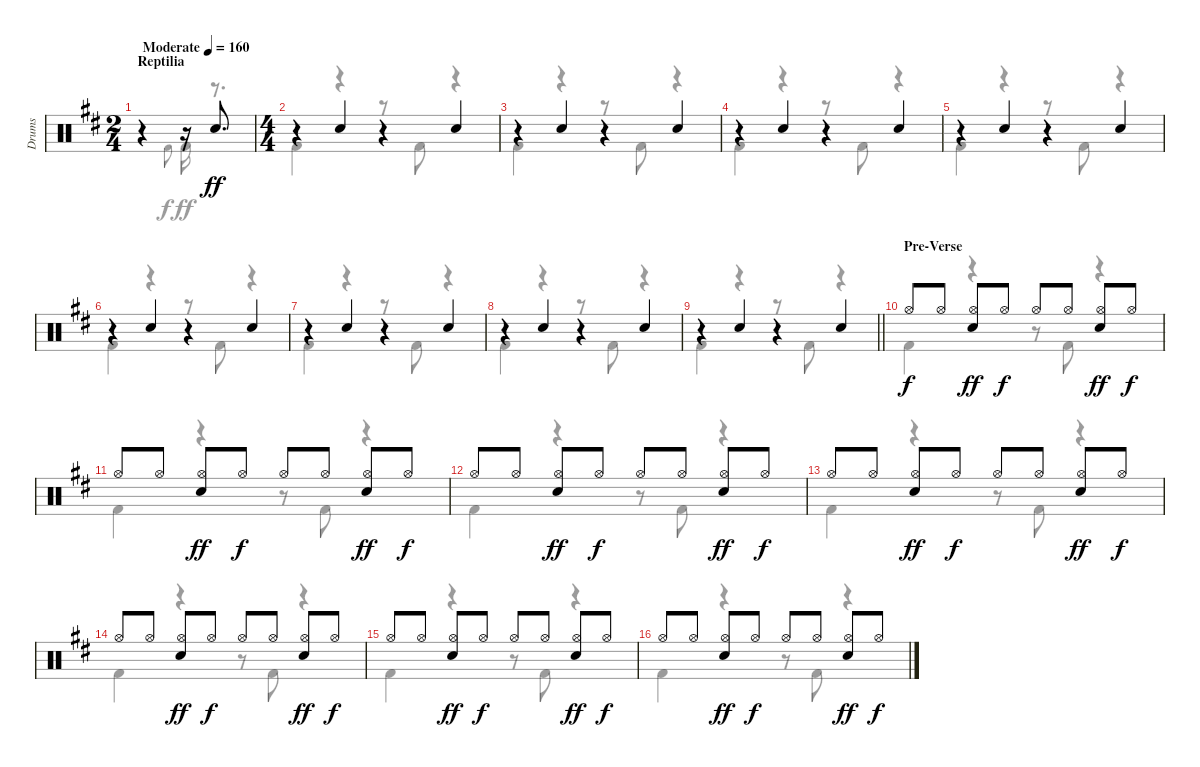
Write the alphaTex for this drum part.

\track ("Drums" "Drums") {instrument percussion}
\staff {score}
\articulation defaults
\voice
\ts (2 4)
\section ("" "Reptilia")
\tempo (160 "Moderate")
\clef neutral
\ks bminor
r.4{dy ff} r.16 "Electric Snare (hit)".8{d} |
\ts (4 4)
r.4 "Electric Snare (hit)".4 r.4 "Electric Snare (hit)".4 |
r.4 "Electric Snare (hit)".4 r.4 "Electric Snare (hit)".4 |
r.4 "Electric Snare (hit)".4 r.4 "Electric Snare (hit)".4 |
r.4 "Electric Snare (hit)".4 r.4 "Electric Snare (hit)".4 |
r.4 "Electric Snare (hit)".4 r.4 "Electric Snare (hit)".4 |
r.4 "Electric Snare (hit)".4 r.4 "Electric Snare (hit)".4 |
r.4 "Electric Snare (hit)".4 r.4 "Electric Snare (hit)".4 |
\barLineRight lightlight
r.4 "Electric Snare (hit)".4 r.4 "Electric Snare (hit)".4 |
\section ("" "Pre-Verse")
"Hi-Hat (open)".8{dy f} "Hi-Hat (open)".8 ("Hi-Hat (open)" "Electric Snare (hit)").8{dy ff} "Hi-Hat (open)".8{dy f} "Hi-Hat (open)".8 "Hi-Hat (open)".8 ("Hi-Hat (open)" "Electric Snare (hit)").8{dy ff} "Hi-Hat (open)".8{dy f} |
"Hi-Hat (open)".8 "Hi-Hat (open)".8 ("Hi-Hat (open)" "Electric Snare (hit)").8{dy ff} "Hi-Hat (open)".8{dy f} "Hi-Hat (open)".8 "Hi-Hat (open)".8 ("Hi-Hat (open)" "Electric Snare (hit)").8{dy ff} "Hi-Hat (open)".8{dy f} |
"Hi-Hat (open)".8 "Hi-Hat (open)".8 ("Hi-Hat (open)" "Electric Snare (hit)").8{dy ff} "Hi-Hat (open)".8{dy f} "Hi-Hat (open)".8 "Hi-Hat (open)".8 ("Hi-Hat (open)" "Electric Snare (hit)").8{dy ff} "Hi-Hat (open)".8{dy f} |
"Hi-Hat (open)".8 "Hi-Hat (open)".8 ("Hi-Hat (open)" "Electric Snare (hit)").8{dy ff} "Hi-Hat (open)".8{dy f} "Hi-Hat (open)".8 "Hi-Hat (open)".8 ("Hi-Hat (open)" "Electric Snare (hit)").8{dy ff} "Hi-Hat (open)".8{dy f} |
"Hi-Hat (open)".8 "Hi-Hat (open)".8 ("Hi-Hat (open)" "Electric Snare (hit)").8{dy ff} "Hi-Hat (open)".8{dy f} "Hi-Hat (open)".8 "Hi-Hat (open)".8 ("Hi-Hat (open)" "Electric Snare (hit)").8{dy ff} "Hi-Hat (open)".8{dy f} |
"Hi-Hat (open)".8 "Hi-Hat (open)".8 ("Hi-Hat (open)" "Electric Snare (hit)").8{dy ff} "Hi-Hat (open)".8{dy f} "Hi-Hat (open)".8 "Hi-Hat (open)".8 ("Hi-Hat (open)" "Electric Snare (hit)").8{dy ff} "Hi-Hat (open)".8{dy f} |
"Hi-Hat (open)".8 "Hi-Hat (open)".8 ("Hi-Hat (open)" "Electric Snare (hit)").8{dy ff} "Hi-Hat (open)".8{dy f} "Hi-Hat (open)".8 "Hi-Hat (open)".8 ("Hi-Hat (open)" "Electric Snare (hit)").8{dy ff} "Hi-Hat (open)".8{dy f}
\voice
\clef neutral
\ottava regular
\simile none
\ks bminor
r.4{dy f} "Kick (hit) 2".8{gr onbeat} "Kick (hit) 2".16{dy ff} r.8{d} |
"Kick (hit) 2".4 r.4 r.8 "Kick (hit) 2".8 r.4 |
"Kick (hit) 2".4 r.4 r.8 "Kick (hit) 2".8 r.4 |
"Kick (hit) 2".4 r.4 r.8 "Kick (hit) 2".8 r.4 |
"Kick (hit) 2".4 r.4 r.8 "Kick (hit) 2".8 r.4 |
"Kick (hit) 2".4 r.4 r.8 "Kick (hit) 2".8 r.4 |
"Kick (hit) 2".4 r.4 r.8 "Kick (hit) 2".8 r.4 |
"Kick (hit) 2".4 r.4 r.8 "Kick (hit) 2".8 r.4 |
\barLineRight lightlight "Kick (hit) 2".4
r.4 r.8 "Kick (hit) 2".8 r.4 |
"Kick (hit) 2".4 r.4 r.8 "Kick (hit) 2".8 r.4 |
"Kick (hit) 2".4 r.4 r.8 "Kick (hit) 2".8 r.4 |
"Kick (hit) 2".4 r.4 r.8 "Kick (hit) 2".8 r.4 |
"Kick (hit) 2".4 r.4 r.8 "Kick (hit) 2".8 r.4 |
"Kick (hit) 2".4 r.4 r.8 "Kick (hit) 2".8 r.4 |
"Kick (hit) 2".4 r.4 r.8 "Kick (hit) 2".8 r.4 |
"Kick (hit) 2".4 r.4 r.8 "Kick (hit) 2".8 r.4
